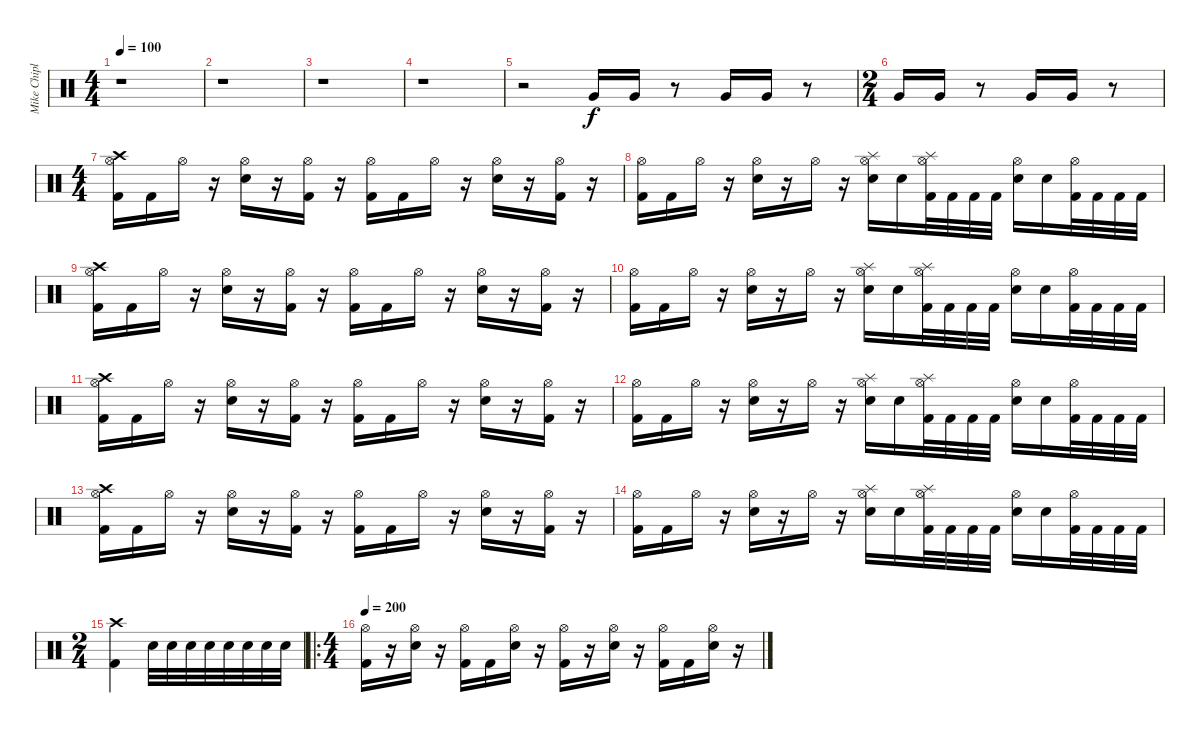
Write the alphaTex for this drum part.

\track ("Mike Chiplin" "Mike Chipl") {instrument percussion}
\staff {score}
\articulation defaults
\ts (4 4)
\tempo 100
\clef neutral
\ks c
r.1{dy f} |
r.1 |
r.1 |
r.1 |
r.2 "Very Low Tom (hit)".16 "Very Low Tom (hit)".16 r.8 "Very Low Tom (hit)".16 "Very Low Tom (hit)".16 r.8 |
\ts (2 4)
"Very Low Tom (hit)".16 "Very Low Tom (hit)".16 r.8 "Very Low Tom (hit)".16 "Very Low Tom (hit)".16 r.8 |
\ts (4 4)
("Hi-Hat (open)" "Kick (hit) 2" "Crash high (hit)").16 "Kick (hit) 2".16 "Hi-Hat (open)".16 r.16 ("Hi-Hat (open)" "Electric Snare (hit)").16 r.16 ("Hi-Hat (open)" "Kick (hit) 2").16 r.16 ("Hi-Hat (open)" "Kick (hit) 2").16 "Kick (hit) 2".16 "Hi-Hat (open)".16 r.16 ("Hi-Hat (open)" "Electric Snare (hit)").16 r.16 ("Hi-Hat (open)" "Kick (hit) 2").16 r.16 |
("Hi-Hat (open)" "Kick (hit) 2").16 "Kick (hit) 2".16 "Hi-Hat (open)".16 r.16 ("Hi-Hat (open)" "Electric Snare (hit)").16 r.16 "Hi-Hat (open)".16 r.16 ("Hi-Hat (open)" "Electric Snare (hit)" "Splash (hit)").16 "Electric Snare (hit)".16 ("Hi-Hat (open)" "Kick (hit) 2" "Splash (hit)").32 "Kick (hit) 2".32 "Kick (hit) 2".32 "Kick (hit) 2".32 ("Hi-Hat (open)" "Electric Snare (hit)").16 "Electric Snare (hit)".16 ("Kick (hit) 2" "Hi-Hat (open)").32 "Kick (hit) 2".32 "Kick (hit) 2".32 "Kick (hit) 2".32 |
("Hi-Hat (open)" "Kick (hit) 2" "Crash high (hit)").16 "Kick (hit) 2".16 "Hi-Hat (open)".16 r.16 ("Hi-Hat (open)" "Electric Snare (hit)").16 r.16 ("Hi-Hat (open)" "Kick (hit) 2").16 r.16 ("Hi-Hat (open)" "Kick (hit) 2").16 "Kick (hit) 2".16 "Hi-Hat (open)".16 r.16 ("Hi-Hat (open)" "Electric Snare (hit)").16 r.16 ("Hi-Hat (open)" "Kick (hit) 2").16 r.16 |
("Hi-Hat (open)" "Kick (hit) 2").16 "Kick (hit) 2".16 "Hi-Hat (open)".16 r.16 ("Hi-Hat (open)" "Electric Snare (hit)").16 r.16 "Hi-Hat (open)".16 r.16 ("Hi-Hat (open)" "Electric Snare (hit)" "Splash (hit)").16 "Electric Snare (hit)".16 ("Hi-Hat (open)" "Kick (hit) 2" "Splash (hit)").32 "Kick (hit) 2".32 "Kick (hit) 2".32 "Kick (hit) 2".32 ("Hi-Hat (open)" "Electric Snare (hit)").16 "Electric Snare (hit)".16 ("Kick (hit) 2" "Hi-Hat (open)").32 "Kick (hit) 2".32 "Kick (hit) 2".32 "Kick (hit) 2".32 |
("Hi-Hat (open)" "Kick (hit) 2" "Crash high (hit)").16 "Kick (hit) 2".16 "Hi-Hat (open)".16 r.16 ("Hi-Hat (open)" "Electric Snare (hit)").16 r.16 ("Hi-Hat (open)" "Kick (hit) 2").16 r.16 ("Hi-Hat (open)" "Kick (hit) 2").16 "Kick (hit) 2".16 "Hi-Hat (open)".16 r.16 ("Hi-Hat (open)" "Electric Snare (hit)").16 r.16 ("Hi-Hat (open)" "Kick (hit) 2").16 r.16 |
("Hi-Hat (open)" "Kick (hit) 2").16 "Kick (hit) 2".16 "Hi-Hat (open)".16 r.16 ("Hi-Hat (open)" "Electric Snare (hit)").16 r.16 "Hi-Hat (open)".16 r.16 ("Hi-Hat (open)" "Electric Snare (hit)" "Splash (hit)").16 "Electric Snare (hit)".16 ("Hi-Hat (open)" "Kick (hit) 2" "Splash (hit)").32 "Kick (hit) 2".32 "Kick (hit) 2".32 "Kick (hit) 2".32 ("Hi-Hat (open)" "Electric Snare (hit)").16 "Electric Snare (hit)".16 ("Kick (hit) 2" "Hi-Hat (open)").32 "Kick (hit) 2".32 "Kick (hit) 2".32 "Kick (hit) 2".32 |
("Hi-Hat (open)" "Kick (hit) 2" "Crash high (hit)").16 "Kick (hit) 2".16 "Hi-Hat (open)".16 r.16 ("Hi-Hat (open)" "Electric Snare (hit)").16 r.16 ("Hi-Hat (open)" "Kick (hit) 2").16 r.16 ("Hi-Hat (open)" "Kick (hit) 2").16 "Kick (hit) 2".16 "Hi-Hat (open)".16 r.16 ("Hi-Hat (open)" "Electric Snare (hit)").16 r.16 ("Hi-Hat (open)" "Kick (hit) 2").16 r.16 |
("Hi-Hat (open)" "Kick (hit) 2").16 "Kick (hit) 2".16 "Hi-Hat (open)".16 r.16 ("Hi-Hat (open)" "Electric Snare (hit)").16 r.16 "Hi-Hat (open)".16 r.16 ("Hi-Hat (open)" "Electric Snare (hit)" "Splash (hit)").16 "Electric Snare (hit)".16 ("Hi-Hat (open)" "Kick (hit) 2" "Splash (hit)").32 "Kick (hit) 2".32 "Kick (hit) 2".32 "Kick (hit) 2".32 ("Hi-Hat (open)" "Electric Snare (hit)").16 "Electric Snare (hit)".16 ("Kick (hit) 2" "Hi-Hat (open)").32 "Kick (hit) 2".32 "Kick (hit) 2".32 "Kick (hit) 2".32 |
\ts (2 4)
("Kick (hit) 2" "Crash high (hit)").4 "Electric Snare (hit)".32 "Electric Snare (hit)".32 "Electric Snare (hit)".32 "Electric Snare (hit)".32 "Electric Snare (hit)".32 "Electric Snare (hit)".32 "Electric Snare (hit)".32 "Electric Snare (hit)".32 |
\ro
\ts (4 4)
\tempo 200
("Hi-Hat (open)" "Kick (hit) 2").16 r.16 ("Hi-Hat (open)" "Electric Snare (hit)").16 r.16 ("Hi-Hat (open)" "Kick (hit) 2").16 "Kick (hit) 2".16 ("Hi-Hat (open)" "Electric Snare (hit)").16 r.16 ("Hi-Hat (open)" "Kick (hit) 2").16 r.16 ("Hi-Hat (open)" "Electric Snare (hit)").16 r.16 ("Hi-Hat (open)" "Kick (hit) 2").16 "Kick (hit) 2".16 ("Hi-Hat (open)" "Electric Snare (hit)").16 r.16
